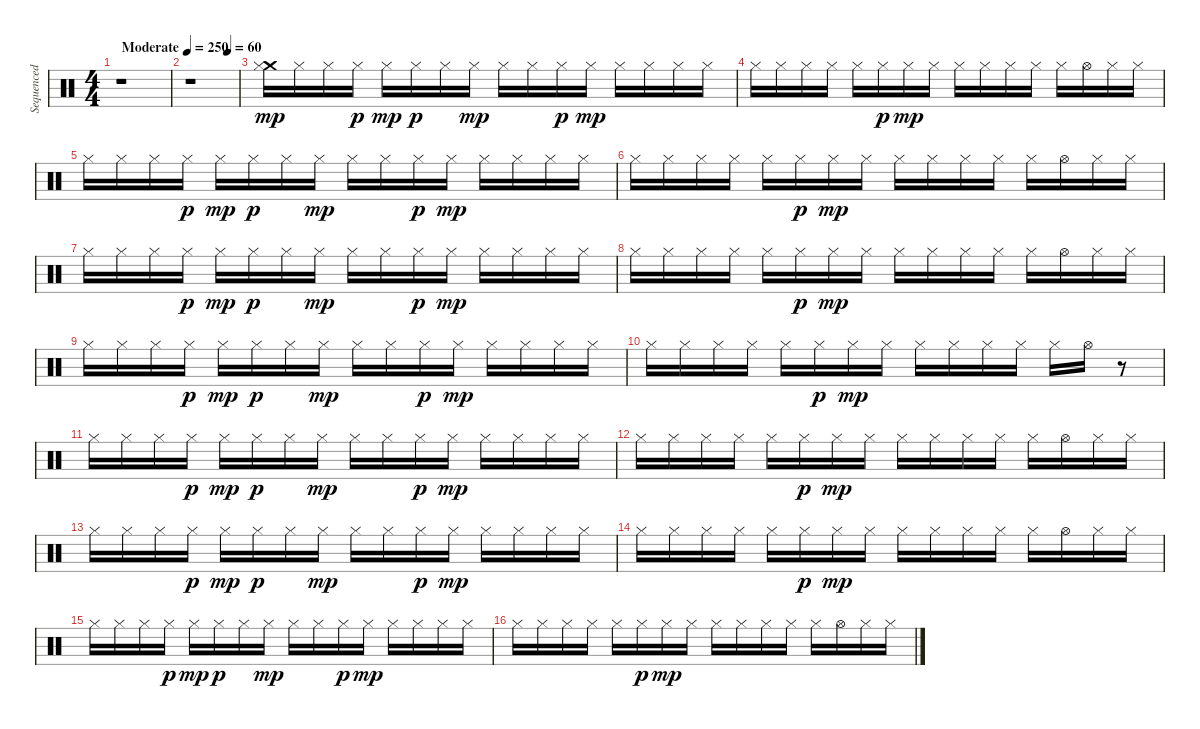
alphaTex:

\track ("Sequenced by Ade" "Sequenced ") {instrument percussion}
\staff {score}
\articulation defaults
\ts (4 4)
\tempo (250 "Moderate")
\clef neutral
\ks c
r.1{dy mp} |
\tempo (60 0.78125)
r.1 |
("Crash medium (hit)" "Hi-Hat (closed)").16 "Hi-Hat (closed)".16 "Hi-Hat (closed)".16 "Hi-Hat (closed)".16{dy p} "Hi-Hat (closed)".16{dy mp} "Hi-Hat (closed)".16{dy p} "Hi-Hat (closed)".16 "Hi-Hat (closed)".16{dy mp} "Hi-Hat (closed)".16 "Hi-Hat (closed)".16 "Hi-Hat (closed)".16{dy p} "Hi-Hat (closed)".16{dy mp} "Hi-Hat (closed)".16 "Hi-Hat (closed)".16 "Hi-Hat (closed)".16 "Hi-Hat (closed)".16 |
"Hi-Hat (closed)".16 "Hi-Hat (closed)".16 "Hi-Hat (closed)".16 "Hi-Hat (closed)".16 "Hi-Hat (closed)".16 "Hi-Hat (closed)".16{dy p} "Hi-Hat (closed)".16{dy mp} "Hi-Hat (closed)".16 "Hi-Hat (closed)".16 "Hi-Hat (closed)".16 "Hi-Hat (closed)".16 "Hi-Hat (closed)".16 "Hi-Hat (closed)".16 "Hi-Hat (open)".16 "Hi-Hat (closed)".16 "Hi-Hat (closed)".16 |
"Hi-Hat (closed)".16 "Hi-Hat (closed)".16 "Hi-Hat (closed)".16 "Hi-Hat (closed)".16{dy p} "Hi-Hat (closed)".16{dy mp} "Hi-Hat (closed)".16{dy p} "Hi-Hat (closed)".16 "Hi-Hat (closed)".16{dy mp} "Hi-Hat (closed)".16 "Hi-Hat (closed)".16 "Hi-Hat (closed)".16{dy p} "Hi-Hat (closed)".16{dy mp} "Hi-Hat (closed)".16 "Hi-Hat (closed)".16 "Hi-Hat (closed)".16 "Hi-Hat (closed)".16 |
"Hi-Hat (closed)".16 "Hi-Hat (closed)".16 "Hi-Hat (closed)".16 "Hi-Hat (closed)".16 "Hi-Hat (closed)".16 "Hi-Hat (closed)".16{dy p} "Hi-Hat (closed)".16{dy mp} "Hi-Hat (closed)".16 "Hi-Hat (closed)".16 "Hi-Hat (closed)".16 "Hi-Hat (closed)".16 "Hi-Hat (closed)".16 "Hi-Hat (closed)".16 "Hi-Hat (open)".16 "Hi-Hat (closed)".16 "Hi-Hat (closed)".16 |
"Hi-Hat (closed)".16 "Hi-Hat (closed)".16 "Hi-Hat (closed)".16 "Hi-Hat (closed)".16{dy p} "Hi-Hat (closed)".16{dy mp} "Hi-Hat (closed)".16{dy p} "Hi-Hat (closed)".16 "Hi-Hat (closed)".16{dy mp} "Hi-Hat (closed)".16 "Hi-Hat (closed)".16 "Hi-Hat (closed)".16{dy p} "Hi-Hat (closed)".16{dy mp} "Hi-Hat (closed)".16 "Hi-Hat (closed)".16 "Hi-Hat (closed)".16 "Hi-Hat (closed)".16 |
"Hi-Hat (closed)".16 "Hi-Hat (closed)".16 "Hi-Hat (closed)".16 "Hi-Hat (closed)".16 "Hi-Hat (closed)".16 "Hi-Hat (closed)".16{dy p} "Hi-Hat (closed)".16{dy mp} "Hi-Hat (closed)".16 "Hi-Hat (closed)".16 "Hi-Hat (closed)".16 "Hi-Hat (closed)".16 "Hi-Hat (closed)".16 "Hi-Hat (closed)".16 "Hi-Hat (open)".16 "Hi-Hat (closed)".16 "Hi-Hat (closed)".16 |
"Hi-Hat (closed)".16 "Hi-Hat (closed)".16 "Hi-Hat (closed)".16 "Hi-Hat (closed)".16{dy p} "Hi-Hat (closed)".16{dy mp} "Hi-Hat (closed)".16{dy p} "Hi-Hat (closed)".16 "Hi-Hat (closed)".16{dy mp} "Hi-Hat (closed)".16 "Hi-Hat (closed)".16 "Hi-Hat (closed)".16{dy p} "Hi-Hat (closed)".16{dy mp} "Hi-Hat (closed)".16 "Hi-Hat (closed)".16 "Hi-Hat (closed)".16 "Hi-Hat (closed)".16 |
"Hi-Hat (closed)".16 "Hi-Hat (closed)".16 "Hi-Hat (closed)".16 "Hi-Hat (closed)".16 "Hi-Hat (closed)".16 "Hi-Hat (closed)".16{dy p} "Hi-Hat (closed)".16{dy mp} "Hi-Hat (closed)".16 "Hi-Hat (closed)".16 "Hi-Hat (closed)".16 "Hi-Hat (closed)".16 "Hi-Hat (closed)".16 "Hi-Hat (closed)".16 "Hi-Hat (open)".16 r.8 |
"Hi-Hat (closed)".16 "Hi-Hat (closed)".16 "Hi-Hat (closed)".16 "Hi-Hat (closed)".16{dy p} "Hi-Hat (closed)".16{dy mp} "Hi-Hat (closed)".16{dy p} "Hi-Hat (closed)".16 "Hi-Hat (closed)".16{dy mp} "Hi-Hat (closed)".16 "Hi-Hat (closed)".16 "Hi-Hat (closed)".16{dy p} "Hi-Hat (closed)".16{dy mp} "Hi-Hat (closed)".16 "Hi-Hat (closed)".16 "Hi-Hat (closed)".16 "Hi-Hat (closed)".16 |
"Hi-Hat (closed)".16 "Hi-Hat (closed)".16 "Hi-Hat (closed)".16 "Hi-Hat (closed)".16 "Hi-Hat (closed)".16 "Hi-Hat (closed)".16{dy p} "Hi-Hat (closed)".16{dy mp} "Hi-Hat (closed)".16 "Hi-Hat (closed)".16 "Hi-Hat (closed)".16 "Hi-Hat (closed)".16 "Hi-Hat (closed)".16 "Hi-Hat (closed)".16 "Hi-Hat (open)".16 "Hi-Hat (closed)".16 "Hi-Hat (closed)".16 |
"Hi-Hat (closed)".16 "Hi-Hat (closed)".16 "Hi-Hat (closed)".16 "Hi-Hat (closed)".16{dy p} "Hi-Hat (closed)".16{dy mp} "Hi-Hat (closed)".16{dy p} "Hi-Hat (closed)".16 "Hi-Hat (closed)".16{dy mp} "Hi-Hat (closed)".16 "Hi-Hat (closed)".16 "Hi-Hat (closed)".16{dy p} "Hi-Hat (closed)".16{dy mp} "Hi-Hat (closed)".16 "Hi-Hat (closed)".16 "Hi-Hat (closed)".16 "Hi-Hat (closed)".16 |
"Hi-Hat (closed)".16 "Hi-Hat (closed)".16 "Hi-Hat (closed)".16 "Hi-Hat (closed)".16 "Hi-Hat (closed)".16 "Hi-Hat (closed)".16{dy p} "Hi-Hat (closed)".16{dy mp} "Hi-Hat (closed)".16 "Hi-Hat (closed)".16 "Hi-Hat (closed)".16 "Hi-Hat (closed)".16 "Hi-Hat (closed)".16 "Hi-Hat (closed)".16 "Hi-Hat (open)".16 "Hi-Hat (closed)".16 "Hi-Hat (closed)".16 |
"Hi-Hat (closed)".16 "Hi-Hat (closed)".16 "Hi-Hat (closed)".16 "Hi-Hat (closed)".16{dy p} "Hi-Hat (closed)".16{dy mp} "Hi-Hat (closed)".16{dy p} "Hi-Hat (closed)".16 "Hi-Hat (closed)".16{dy mp} "Hi-Hat (closed)".16 "Hi-Hat (closed)".16 "Hi-Hat (closed)".16{dy p} "Hi-Hat (closed)".16{dy mp} "Hi-Hat (closed)".16 "Hi-Hat (closed)".16 "Hi-Hat (closed)".16 "Hi-Hat (closed)".16 |
"Hi-Hat (closed)".16 "Hi-Hat (closed)".16 "Hi-Hat (closed)".16 "Hi-Hat (closed)".16 "Hi-Hat (closed)".16 "Hi-Hat (closed)".16{dy p} "Hi-Hat (closed)".16{dy mp} "Hi-Hat (closed)".16 "Hi-Hat (closed)".16 "Hi-Hat (closed)".16 "Hi-Hat (closed)".16 "Hi-Hat (closed)".16 "Hi-Hat (closed)".16 "Hi-Hat (open)".16 "Hi-Hat (closed)".16 "Hi-Hat (closed)".16
